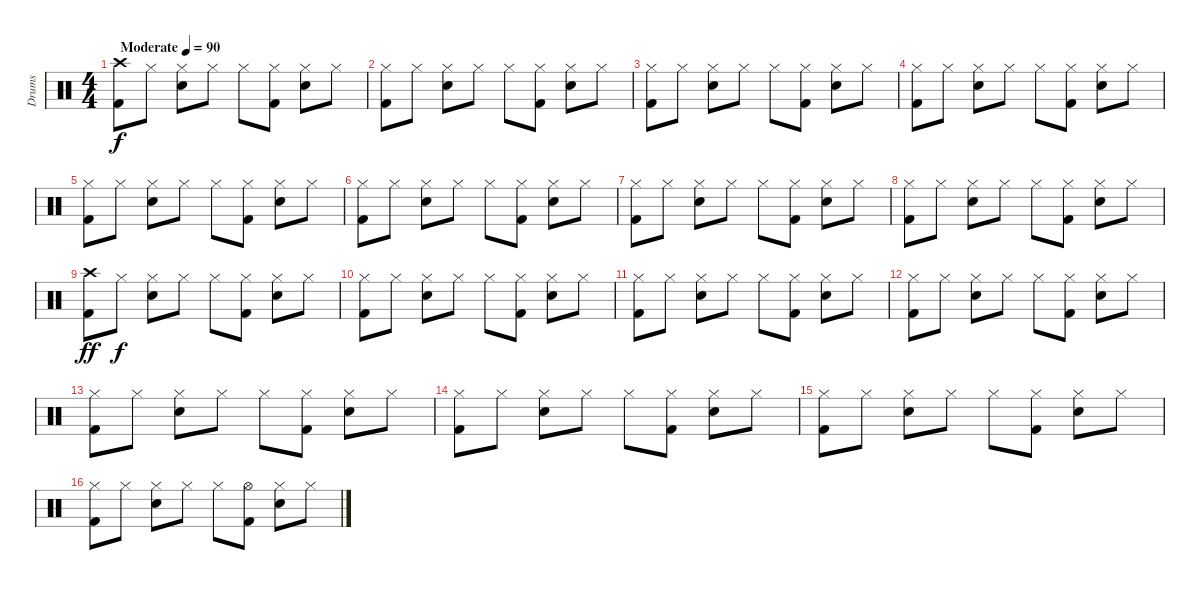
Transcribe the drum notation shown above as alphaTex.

\track ("Drums" "Drums") {instrument percussion}
\staff {score}
\articulation defaults
\ts (4 4)
\tempo (90 "Moderate")
\clef neutral
\ks c
("Kick (hit) 2" "Crash high (hit)").8{dy f} "Hi-Hat (closed)".8 ("Electric Snare (hit)" "Hi-Hat (closed)").8 "Hi-Hat (closed)".8 "Hi-Hat (closed)".8 ("Kick (hit) 2" "Hi-Hat (closed)").8 ("Electric Snare (hit)" "Hi-Hat (closed)").8 "Hi-Hat (closed)".8 |
("Kick (hit) 2" "Hi-Hat (closed)").8 "Hi-Hat (closed)".8 ("Electric Snare (hit)" "Hi-Hat (closed)").8 "Hi-Hat (closed)".8 "Hi-Hat (closed)".8 ("Kick (hit) 2" "Hi-Hat (closed)").8 ("Electric Snare (hit)" "Hi-Hat (closed)").8 "Hi-Hat (closed)".8 |
("Kick (hit) 2" "Hi-Hat (closed)").8 "Hi-Hat (closed)".8 ("Electric Snare (hit)" "Hi-Hat (closed)").8 "Hi-Hat (closed)".8 "Hi-Hat (closed)".8 ("Kick (hit) 2" "Hi-Hat (closed)").8{txt ""} ("Electric Snare (hit)" "Hi-Hat (closed)").8 "Hi-Hat (closed)".8 |
("Kick (hit) 2" "Hi-Hat (closed)").8 "Hi-Hat (closed)".8 ("Electric Snare (hit)" "Hi-Hat (closed)").8 "Hi-Hat (closed)".8 "Hi-Hat (closed)".8 ("Kick (hit) 2" "Hi-Hat (closed)").8 ("Electric Snare (hit)" "Hi-Hat (closed)").8 "Hi-Hat (closed)".8 |
("Kick (hit) 2" "Hi-Hat (closed)").8 "Hi-Hat (closed)".8 ("Electric Snare (hit)" "Hi-Hat (closed)").8 "Hi-Hat (closed)".8 "Hi-Hat (closed)".8 ("Kick (hit) 2" "Hi-Hat (closed)").8 ("Electric Snare (hit)" "Hi-Hat (closed)").8 "Hi-Hat (closed)".8 |
("Kick (hit) 2" "Hi-Hat (closed)").8 "Hi-Hat (closed)".8 ("Electric Snare (hit)" "Hi-Hat (closed)").8 "Hi-Hat (closed)".8 "Hi-Hat (closed)".8 ("Kick (hit) 2" "Hi-Hat (closed)").8 ("Electric Snare (hit)" "Hi-Hat (closed)").8 "Hi-Hat (closed)".8 |
("Kick (hit) 2" "Hi-Hat (closed)").8 "Hi-Hat (closed)".8 ("Electric Snare (hit)" "Hi-Hat (closed)").8 "Hi-Hat (closed)".8 "Hi-Hat (closed)".8 ("Kick (hit) 2" "Hi-Hat (closed)").8 ("Electric Snare (hit)" "Hi-Hat (closed)").8 "Hi-Hat (closed)".8 |
("Kick (hit) 2" "Hi-Hat (closed)").8 "Hi-Hat (closed)".8 ("Electric Snare (hit)" "Hi-Hat (closed)").8 "Hi-Hat (closed)".8 "Hi-Hat (closed)".8 ("Kick (hit) 2" "Hi-Hat (closed)").8 ("Electric Snare (hit)" "Hi-Hat (closed)").8 "Hi-Hat (closed)".8 |
("Kick (hit) 2" "Crash high (hit)").8{dy ff} "Hi-Hat (closed)".8{dy f} ("Electric Snare (hit)" "Hi-Hat (closed)").8 "Hi-Hat (closed)".8 "Hi-Hat (closed)".8 ("Kick (hit) 2" "Hi-Hat (closed)").8 ("Electric Snare (hit)" "Hi-Hat (closed)").8 "Hi-Hat (closed)".8 |
("Kick (hit) 2" "Hi-Hat (closed)").8 "Hi-Hat (closed)".8 ("Electric Snare (hit)" "Hi-Hat (closed)").8 "Hi-Hat (closed)".8 "Hi-Hat (closed)".8 ("Kick (hit) 2" "Hi-Hat (closed)").8 ("Electric Snare (hit)" "Hi-Hat (closed)").8 "Hi-Hat (closed)".8 |
("Kick (hit) 2" "Hi-Hat (closed)").8 "Hi-Hat (closed)".8 ("Electric Snare (hit)" "Hi-Hat (closed)").8 "Hi-Hat (closed)".8 "Hi-Hat (closed)".8 ("Kick (hit) 2" "Hi-Hat (closed)").8 ("Electric Snare (hit)" "Hi-Hat (closed)").8 "Hi-Hat (closed)".8 |
("Kick (hit) 2" "Hi-Hat (closed)").8 "Hi-Hat (closed)".8 ("Electric Snare (hit)" "Hi-Hat (closed)").8 "Hi-Hat (closed)".8 "Hi-Hat (closed)".8 ("Kick (hit) 2" "Hi-Hat (closed)").8 ("Electric Snare (hit)" "Hi-Hat (closed)").8 "Hi-Hat (closed)".8 |
("Kick (hit) 2" "Hi-Hat (closed)").8 "Hi-Hat (closed)".8 ("Electric Snare (hit)" "Hi-Hat (closed)").8 "Hi-Hat (closed)".8 "Hi-Hat (closed)".8 ("Kick (hit) 2" "Hi-Hat (closed)").8 ("Electric Snare (hit)" "Hi-Hat (closed)").8 "Hi-Hat (closed)".8 |
("Kick (hit) 2" "Hi-Hat (closed)").8 "Hi-Hat (closed)".8 ("Electric Snare (hit)" "Hi-Hat (closed)").8 "Hi-Hat (closed)".8 "Hi-Hat (closed)".8 ("Kick (hit) 2" "Hi-Hat (closed)").8 ("Electric Snare (hit)" "Hi-Hat (closed)").8 "Hi-Hat (closed)".8 |
("Kick (hit) 2" "Hi-Hat (closed)").8 "Hi-Hat (closed)".8 ("Electric Snare (hit)" "Hi-Hat (closed)").8 "Hi-Hat (closed)".8 "Hi-Hat (closed)".8 ("Kick (hit) 2" "Hi-Hat (closed)").8 ("Electric Snare (hit)" "Hi-Hat (closed)").8 "Hi-Hat (closed)".8 |
("Kick (hit) 2" "Hi-Hat (closed)").8 "Hi-Hat (closed)".8 ("Electric Snare (hit)" "Hi-Hat (closed)").8 "Hi-Hat (closed)".8 "Hi-Hat (closed)".8 ("Kick (hit) 2" "Hi-Hat (open)").8 ("Electric Snare (hit)" "Hi-Hat (closed)").8 "Hi-Hat (closed)".8
